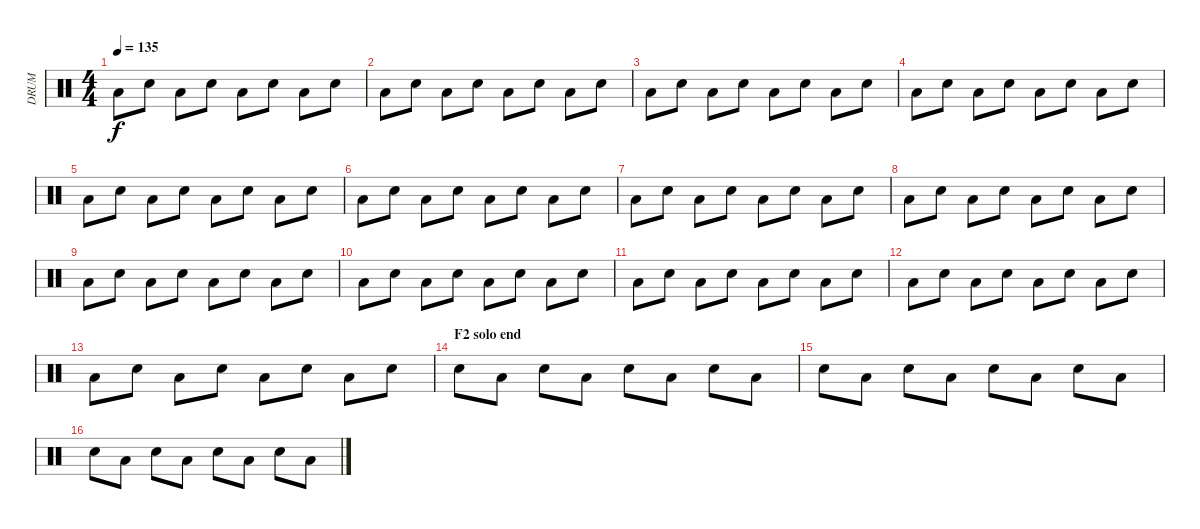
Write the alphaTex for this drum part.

\track ("DRUM" "DRUM") {instrument percussion}
\staff {score}
\articulation defaults
\ts (4 4)
\tempo 135
\clef neutral
\ks c "Low Floor Tom (hit)".8{dy f} "Electric Snare (hit)".8 "Low Floor Tom (hit)".8 "Electric Snare (hit)".8 "Low Floor Tom (hit)".8 "Electric Snare (hit)".8 "Low Floor Tom (hit)".8 "Electric Snare (hit)".8
|
"Low Floor Tom (hit)".8 "Electric Snare (hit)".8 "Low Floor Tom (hit)".8 "Electric Snare (hit)".8 "Low Floor Tom (hit)".8 "Electric Snare (hit)".8 "Low Floor Tom (hit)".8 "Electric Snare (hit)".8 |
"Low Floor Tom (hit)".8 "Electric Snare (hit)".8 "Low Floor Tom (hit)".8 "Electric Snare (hit)".8 "Low Floor Tom (hit)".8 "Electric Snare (hit)".8 "Low Floor Tom (hit)".8 "Electric Snare (hit)".8 |
"Low Floor Tom (hit)".8 "Electric Snare (hit)".8 "Low Floor Tom (hit)".8 "Electric Snare (hit)".8 "Low Floor Tom (hit)".8 "Electric Snare (hit)".8 "Low Floor Tom (hit)".8 "Electric Snare (hit)".8 |
"Low Floor Tom (hit)".8 "Electric Snare (hit)".8 "Low Floor Tom (hit)".8 "Electric Snare (hit)".8 "Low Floor Tom (hit)".8 "Electric Snare (hit)".8 "Low Floor Tom (hit)".8 "Electric Snare (hit)".8 |
"Low Floor Tom (hit)".8 "Electric Snare (hit)".8 "Low Floor Tom (hit)".8 "Electric Snare (hit)".8 "Low Floor Tom (hit)".8 "Electric Snare (hit)".8 "Low Floor Tom (hit)".8 "Electric Snare (hit)".8 |
"Low Floor Tom (hit)".8 "Electric Snare (hit)".8 "Low Floor Tom (hit)".8 "Electric Snare (hit)".8 "Low Floor Tom (hit)".8 "Electric Snare (hit)".8 "Low Floor Tom (hit)".8 "Electric Snare (hit)".8 |
"Low Floor Tom (hit)".8 "Electric Snare (hit)".8 "Low Floor Tom (hit)".8 "Electric Snare (hit)".8 "Low Floor Tom (hit)".8 "Electric Snare (hit)".8 "Low Floor Tom (hit)".8 "Electric Snare (hit)".8 |
"Low Floor Tom (hit)".8 "Electric Snare (hit)".8 "Low Floor Tom (hit)".8 "Electric Snare (hit)".8 "Low Floor Tom (hit)".8 "Electric Snare (hit)".8 "Low Floor Tom (hit)".8 "Electric Snare (hit)".8 |
"Low Floor Tom (hit)".8 "Electric Snare (hit)".8 "Low Floor Tom (hit)".8 "Electric Snare (hit)".8 "Low Floor Tom (hit)".8 "Electric Snare (hit)".8 "Low Floor Tom (hit)".8 "Electric Snare (hit)".8 |
"Low Floor Tom (hit)".8 "Electric Snare (hit)".8 "Low Floor Tom (hit)".8 "Electric Snare (hit)".8 "Low Floor Tom (hit)".8 "Electric Snare (hit)".8 "Low Floor Tom (hit)".8 "Electric Snare (hit)".8 |
"Low Floor Tom (hit)".8 "Electric Snare (hit)".8 "Low Floor Tom (hit)".8 "Electric Snare (hit)".8 "Low Floor Tom (hit)".8 "Electric Snare (hit)".8 "Low Floor Tom (hit)".8 "Electric Snare (hit)".8 |
"Low Floor Tom (hit)".8 "Electric Snare (hit)".8 "Low Floor Tom (hit)".8 "Electric Snare (hit)".8 "Low Floor Tom (hit)".8 "Electric Snare (hit)".8 "Low Floor Tom (hit)".8 "Electric Snare (hit)".8 |
\section ("" "F2 solo end")
"Electric Snare (hit)".8 "Low Floor Tom (hit)".8 "Electric Snare (hit)".8 "Low Floor Tom (hit)".8 "Electric Snare (hit)".8 "Low Floor Tom (hit)".8 "Electric Snare (hit)".8 "Low Floor Tom (hit)".8 |
"Electric Snare (hit)".8 "Low Floor Tom (hit)".8 "Electric Snare (hit)".8 "Low Floor Tom (hit)".8 "Electric Snare (hit)".8 "Low Floor Tom (hit)".8 "Electric Snare (hit)".8 "Low Floor Tom (hit)".8 |
"Electric Snare (hit)".8 "Low Floor Tom (hit)".8 "Electric Snare (hit)".8 "Low Floor Tom (hit)".8 "Electric Snare (hit)".8 "Low Floor Tom (hit)".8 "Electric Snare (hit)".8 "Low Floor Tom (hit)".8
